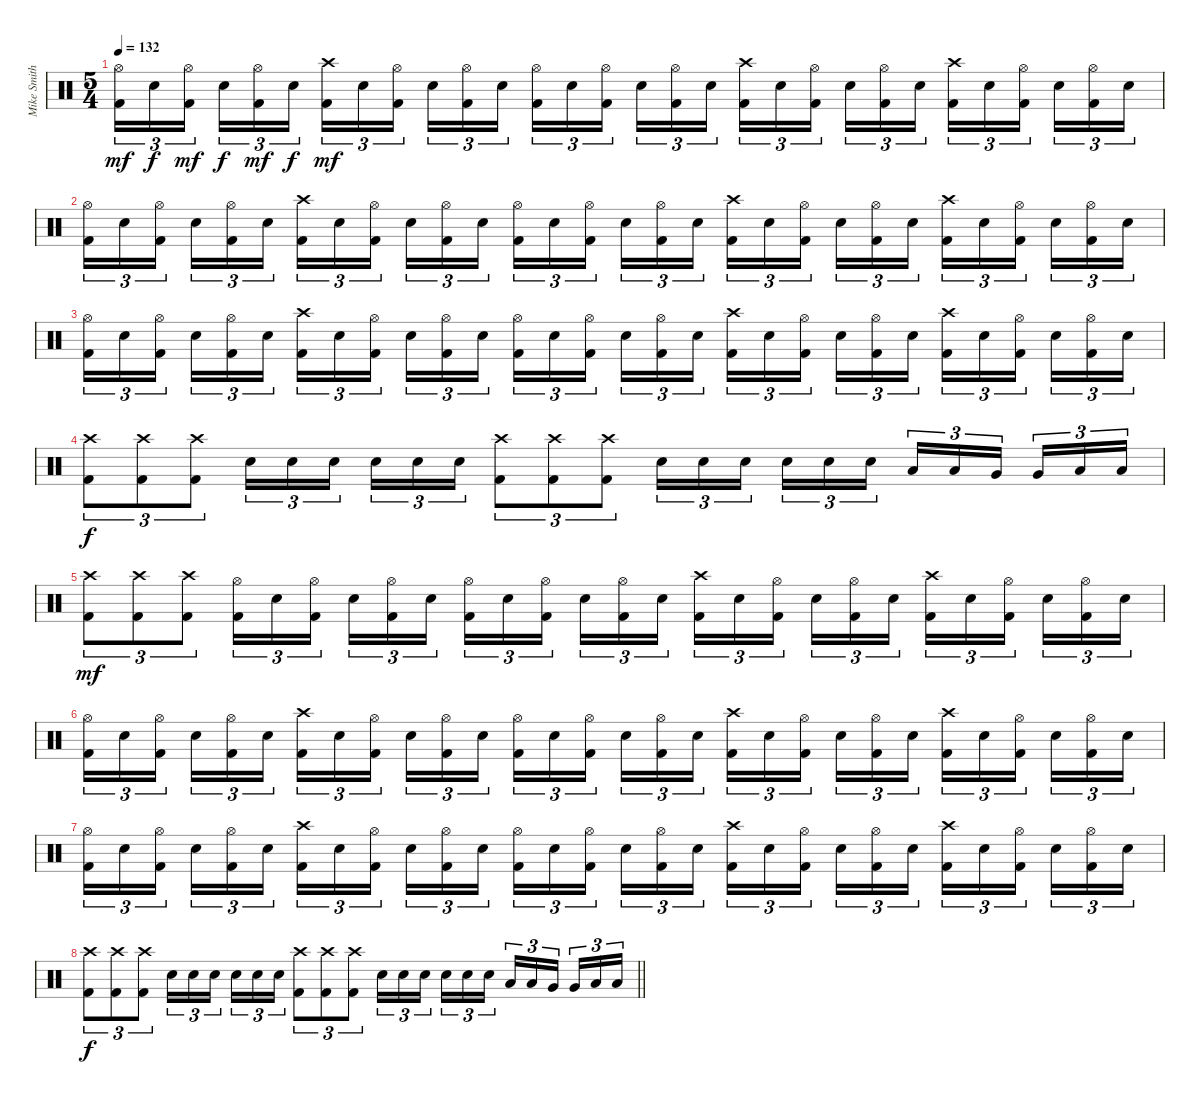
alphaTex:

\track ("Mike Smith" "Mike Smith") {instrument percussion}
\staff {score}
\articulation defaults
\ts (5 4)
\tempo 132
\clef neutral
\ks c
("Hi-Hat (open)" "Kick (hit) 2").16{tu (3 2) dy mf} "Electric Snare (hit)".16{tu (3 2) dy f} ("Hi-Hat (open)" "Kick (hit) 2").16{tu (3 2) dy mf beam splitsecondary} "Electric Snare (hit)".16{tu (3 2) dy f} ("Hi-Hat (open)" "Kick (hit) 2").16{tu (3 2) dy mf} "Electric Snare (hit)".16{tu (3 2) dy f} ("Crash high (hit)" "Kick (hit) 2").16{tu (3 2) dy mf} "Electric Snare (hit)".16{tu (3 2)} ("Hi-Hat (open)" "Kick (hit) 2").16{tu (3 2) beam splitsecondary} "Electric Snare (hit)".16{tu (3 2)} ("Hi-Hat (open)" "Kick (hit) 2").16{tu (3 2)} "Electric Snare (hit)".16{tu (3 2)} ("Hi-Hat (open)" "Kick (hit) 2").16{tu (3 2)} "Electric Snare (hit)".16{tu (3 2)} ("Hi-Hat (open)" "Kick (hit) 2").16{tu (3 2) beam splitsecondary} "Electric Snare (hit)".16{tu (3 2)} ("Hi-Hat (open)" "Kick (hit) 2").16{tu (3 2)} "Electric Snare (hit)".16{tu (3 2)} ("Crash high (hit)" "Kick (hit) 2").16{tu (3 2)} "Electric Snare (hit)".16{tu (3 2)} ("Hi-Hat (open)" "Kick (hit) 2").16{tu (3 2) beam splitsecondary} "Electric Snare (hit)".16{tu (3 2)} ("Hi-Hat (open)" "Kick (hit) 2").16{tu (3 2)} "Electric Snare (hit)".16{tu (3 2)} ("Crash high (hit)" "Kick (hit) 2").16{tu (3 2)} "Electric Snare (hit)".16{tu (3 2)} ("Hi-Hat (open)" "Kick (hit) 2").16{tu (3 2) beam splitsecondary} "Electric Snare (hit)".16{tu (3 2)} ("Hi-Hat (open)" "Kick (hit) 2").16{tu (3 2)} "Electric Snare (hit)".16{tu (3 2)} |
("Hi-Hat (open)" "Kick (hit) 2").16{tu (3 2)} "Electric Snare (hit)".16{tu (3 2)} ("Hi-Hat (open)" "Kick (hit) 2").16{tu (3 2) beam splitsecondary} "Electric Snare (hit)".16{tu (3 2)} ("Hi-Hat (open)" "Kick (hit) 2").16{tu (3 2)} "Electric Snare (hit)".16{tu (3 2)} ("Crash high (hit)" "Kick (hit) 2").16{tu (3 2)} "Electric Snare (hit)".16{tu (3 2)} ("Hi-Hat (open)" "Kick (hit) 2").16{tu (3 2) beam splitsecondary} "Electric Snare (hit)".16{tu (3 2)} ("Hi-Hat (open)" "Kick (hit) 2").16{tu (3 2)} "Electric Snare (hit)".16{tu (3 2)} ("Hi-Hat (open)" "Kick (hit) 2").16{tu (3 2)} "Electric Snare (hit)".16{tu (3 2)} ("Hi-Hat (open)" "Kick (hit) 2").16{tu (3 2) beam splitsecondary} "Electric Snare (hit)".16{tu (3 2)} ("Hi-Hat (open)" "Kick (hit) 2").16{tu (3 2)} "Electric Snare (hit)".16{tu (3 2)} ("Crash high (hit)" "Kick (hit) 2").16{tu (3 2)} "Electric Snare (hit)".16{tu (3 2)} ("Hi-Hat (open)" "Kick (hit) 2").16{tu (3 2) beam splitsecondary} "Electric Snare (hit)".16{tu (3 2)} ("Hi-Hat (open)" "Kick (hit) 2").16{tu (3 2)} "Electric Snare (hit)".16{tu (3 2)} ("Crash high (hit)" "Kick (hit) 2").16{tu (3 2)} "Electric Snare (hit)".16{tu (3 2)} ("Hi-Hat (open)" "Kick (hit) 2").16{tu (3 2) beam splitsecondary} "Electric Snare (hit)".16{tu (3 2)} ("Hi-Hat (open)" "Kick (hit) 2").16{tu (3 2)} "Electric Snare (hit)".16{tu (3 2)} |
("Hi-Hat (open)" "Kick (hit) 2").16{tu (3 2)} "Electric Snare (hit)".16{tu (3 2)} ("Hi-Hat (open)" "Kick (hit) 2").16{tu (3 2) beam splitsecondary} "Electric Snare (hit)".16{tu (3 2)} ("Hi-Hat (open)" "Kick (hit) 2").16{tu (3 2)} "Electric Snare (hit)".16{tu (3 2)} ("Crash high (hit)" "Kick (hit) 2").16{tu (3 2)} "Electric Snare (hit)".16{tu (3 2)} ("Hi-Hat (open)" "Kick (hit) 2").16{tu (3 2) beam splitsecondary} "Electric Snare (hit)".16{tu (3 2)} ("Hi-Hat (open)" "Kick (hit) 2").16{tu (3 2)} "Electric Snare (hit)".16{tu (3 2)} ("Hi-Hat (open)" "Kick (hit) 2").16{tu (3 2)} "Electric Snare (hit)".16{tu (3 2)} ("Hi-Hat (open)" "Kick (hit) 2").16{tu (3 2) beam splitsecondary} "Electric Snare (hit)".16{tu (3 2)} ("Hi-Hat (open)" "Kick (hit) 2").16{tu (3 2)} "Electric Snare (hit)".16{tu (3 2)} ("Crash high (hit)" "Kick (hit) 2").16{tu (3 2)} "Electric Snare (hit)".16{tu (3 2)} ("Hi-Hat (open)" "Kick (hit) 2").16{tu (3 2) beam splitsecondary} "Electric Snare (hit)".16{tu (3 2)} ("Hi-Hat (open)" "Kick (hit) 2").16{tu (3 2)} "Electric Snare (hit)".16{tu (3 2)} ("Crash high (hit)" "Kick (hit) 2").16{tu (3 2)} "Electric Snare (hit)".16{tu (3 2)} ("Hi-Hat (open)" "Kick (hit) 2").16{tu (3 2) beam splitsecondary} "Electric Snare (hit)".16{tu (3 2)} ("Hi-Hat (open)" "Kick (hit) 2").16{tu (3 2)} "Electric Snare (hit)".16{tu (3 2)} |
("Crash high (hit)" "Kick (hit) 2").8{tu (3 2) dy f} ("Crash high (hit)" "Kick (hit) 2").8{tu (3 2)} ("Crash high (hit)" "Kick (hit) 2").8{tu (3 2)} "Electric Snare (hit)".16{tu (3 2)} "Electric Snare (hit)".16{tu (3 2)} "Electric Snare (hit)".16{tu (3 2) beam splitsecondary} "Electric Snare (hit)".16{tu (3 2)} "Electric Snare (hit)".16{tu (3 2)} "Electric Snare (hit)".16{tu (3 2)} ("Crash high (hit)" "Kick (hit) 2").8{tu (3 2)} ("Crash high (hit)" "Kick (hit) 2").8{tu (3 2)} ("Crash high (hit)" "Kick (hit) 2").8{tu (3 2)} "Electric Snare (hit)".16{tu (3 2)} "Electric Snare (hit)".16{tu (3 2)} "Electric Snare (hit)".16{tu (3 2) beam splitsecondary} "Electric Snare (hit)".16{tu (3 2)} "Electric Snare (hit)".16{tu (3 2)} "Electric Snare (hit)".16{tu (3 2)} "Low Tom (hit)".16{tu (3 2)} "Low Tom (hit)".16{tu (3 2)} "Very Low Tom (hit)".16{tu (3 2) beam splitsecondary} "Very Low Tom (hit)".16{tu (3 2)} "Low Floor Tom (hit)".16{tu (3 2)} "Low Floor Tom (hit)".16{tu (3 2)} |
("Crash high (hit)" "Kick (hit) 2").8{tu (3 2) dy mf} ("Crash high (hit)" "Kick (hit) 2").8{tu (3 2)} ("Crash high (hit)" "Kick (hit) 2").8{tu (3 2)} ("Hi-Hat (open)" "Kick (hit) 2").16{tu (3 2)} "Electric Snare (hit)".16{tu (3 2)} ("Hi-Hat (open)" "Kick (hit) 2").16{tu (3 2) beam splitsecondary} "Electric Snare (hit)".16{tu (3 2)} ("Hi-Hat (open)" "Kick (hit) 2").16{tu (3 2)} "Electric Snare (hit)".16{tu (3 2)} ("Hi-Hat (open)" "Kick (hit) 2").16{tu (3 2)} "Electric Snare (hit)".16{tu (3 2)} ("Hi-Hat (open)" "Kick (hit) 2").16{tu (3 2) beam splitsecondary} "Electric Snare (hit)".16{tu (3 2)} ("Hi-Hat (open)" "Kick (hit) 2").16{tu (3 2)} "Electric Snare (hit)".16{tu (3 2)} ("Crash high (hit)" "Kick (hit) 2").16{tu (3 2)} "Electric Snare (hit)".16{tu (3 2)} ("Hi-Hat (open)" "Kick (hit) 2").16{tu (3 2) beam splitsecondary} "Electric Snare (hit)".16{tu (3 2)} ("Hi-Hat (open)" "Kick (hit) 2").16{tu (3 2)} "Electric Snare (hit)".16{tu (3 2)} ("Crash high (hit)" "Kick (hit) 2").16{tu (3 2)} "Electric Snare (hit)".16{tu (3 2)} ("Hi-Hat (open)" "Kick (hit) 2").16{tu (3 2) beam splitsecondary} "Electric Snare (hit)".16{tu (3 2)} ("Hi-Hat (open)" "Kick (hit) 2").16{tu (3 2)} "Electric Snare (hit)".16{tu (3 2)} |
("Hi-Hat (open)" "Kick (hit) 2").16{tu (3 2)} "Electric Snare (hit)".16{tu (3 2)} ("Hi-Hat (open)" "Kick (hit) 2").16{tu (3 2) beam splitsecondary} "Electric Snare (hit)".16{tu (3 2)} ("Hi-Hat (open)" "Kick (hit) 2").16{tu (3 2)} "Electric Snare (hit)".16{tu (3 2)} ("Crash high (hit)" "Kick (hit) 2").16{tu (3 2)} "Electric Snare (hit)".16{tu (3 2)} ("Hi-Hat (open)" "Kick (hit) 2").16{tu (3 2) beam splitsecondary} "Electric Snare (hit)".16{tu (3 2)} ("Hi-Hat (open)" "Kick (hit) 2").16{tu (3 2)} "Electric Snare (hit)".16{tu (3 2)} ("Hi-Hat (open)" "Kick (hit) 2").16{tu (3 2)} "Electric Snare (hit)".16{tu (3 2)} ("Hi-Hat (open)" "Kick (hit) 2").16{tu (3 2) beam splitsecondary} "Electric Snare (hit)".16{tu (3 2)} ("Hi-Hat (open)" "Kick (hit) 2").16{tu (3 2)} "Electric Snare (hit)".16{tu (3 2)} ("Crash high (hit)" "Kick (hit) 2").16{tu (3 2)} "Electric Snare (hit)".16{tu (3 2)} ("Hi-Hat (open)" "Kick (hit) 2").16{tu (3 2) beam splitsecondary} "Electric Snare (hit)".16{tu (3 2)} ("Hi-Hat (open)" "Kick (hit) 2").16{tu (3 2)} "Electric Snare (hit)".16{tu (3 2)} ("Crash high (hit)" "Kick (hit) 2").16{tu (3 2)} "Electric Snare (hit)".16{tu (3 2)} ("Hi-Hat (open)" "Kick (hit) 2").16{tu (3 2) beam splitsecondary} "Electric Snare (hit)".16{tu (3 2)} ("Hi-Hat (open)" "Kick (hit) 2").16{tu (3 2)} "Electric Snare (hit)".16{tu (3 2)} |
("Hi-Hat (open)" "Kick (hit) 2").16{tu (3 2)} "Electric Snare (hit)".16{tu (3 2)} ("Hi-Hat (open)" "Kick (hit) 2").16{tu (3 2) beam splitsecondary} "Electric Snare (hit)".16{tu (3 2)} ("Hi-Hat (open)" "Kick (hit) 2").16{tu (3 2)} "Electric Snare (hit)".16{tu (3 2)} ("Crash high (hit)" "Kick (hit) 2").16{tu (3 2)} "Electric Snare (hit)".16{tu (3 2)} ("Hi-Hat (open)" "Kick (hit) 2").16{tu (3 2) beam splitsecondary} "Electric Snare (hit)".16{tu (3 2)} ("Hi-Hat (open)" "Kick (hit) 2").16{tu (3 2)} "Electric Snare (hit)".16{tu (3 2)} ("Hi-Hat (open)" "Kick (hit) 2").16{tu (3 2)} "Electric Snare (hit)".16{tu (3 2)} ("Hi-Hat (open)" "Kick (hit) 2").16{tu (3 2) beam splitsecondary} "Electric Snare (hit)".16{tu (3 2)} ("Hi-Hat (open)" "Kick (hit) 2").16{tu (3 2)} "Electric Snare (hit)".16{tu (3 2)} ("Crash high (hit)" "Kick (hit) 2").16{tu (3 2)} "Electric Snare (hit)".16{tu (3 2)} ("Hi-Hat (open)" "Kick (hit) 2").16{tu (3 2) beam splitsecondary} "Electric Snare (hit)".16{tu (3 2)} ("Hi-Hat (open)" "Kick (hit) 2").16{tu (3 2)} "Electric Snare (hit)".16{tu (3 2)} ("Crash high (hit)" "Kick (hit) 2").16{tu (3 2)} "Electric Snare (hit)".16{tu (3 2)} ("Hi-Hat (open)" "Kick (hit) 2").16{tu (3 2) beam splitsecondary} "Electric Snare (hit)".16{tu (3 2)} ("Hi-Hat (open)" "Kick (hit) 2").16{tu (3 2)} "Electric Snare (hit)".16{tu (3 2)} |
\barLineRight lightlight
("Crash high (hit)" "Kick (hit) 2").8{tu (3 2) dy f} ("Crash high (hit)" "Kick (hit) 2").8{tu (3 2)} ("Crash high (hit)" "Kick (hit) 2").8{tu (3 2)} "Electric Snare (hit)".16{tu (3 2)} "Electric Snare (hit)".16{tu (3 2)} "Electric Snare (hit)".16{tu (3 2) beam splitsecondary} "Electric Snare (hit)".16{tu (3 2)} "Electric Snare (hit)".16{tu (3 2)} "Electric Snare (hit)".16{tu (3 2)} ("Crash high (hit)" "Kick (hit) 2").8{tu (3 2)} ("Crash high (hit)" "Kick (hit) 2").8{tu (3 2)} ("Crash high (hit)" "Kick (hit) 2").8{tu (3 2)} "Electric Snare (hit)".16{tu (3 2)} "Electric Snare (hit)".16{tu (3 2)} "Electric Snare (hit)".16{tu (3 2) beam splitsecondary} "Electric Snare (hit)".16{tu (3 2)} "Electric Snare (hit)".16{tu (3 2)} "Electric Snare (hit)".16{tu (3 2)} "Low Tom (hit)".16{tu (3 2)} "Low Tom (hit)".16{tu (3 2)} "Very Low Tom (hit)".16{tu (3 2) beam splitsecondary} "Very Low Tom (hit)".16{tu (3 2)} "Low Floor Tom (hit)".16{tu (3 2)} "Low Floor Tom (hit)".16{tu (3 2)}
